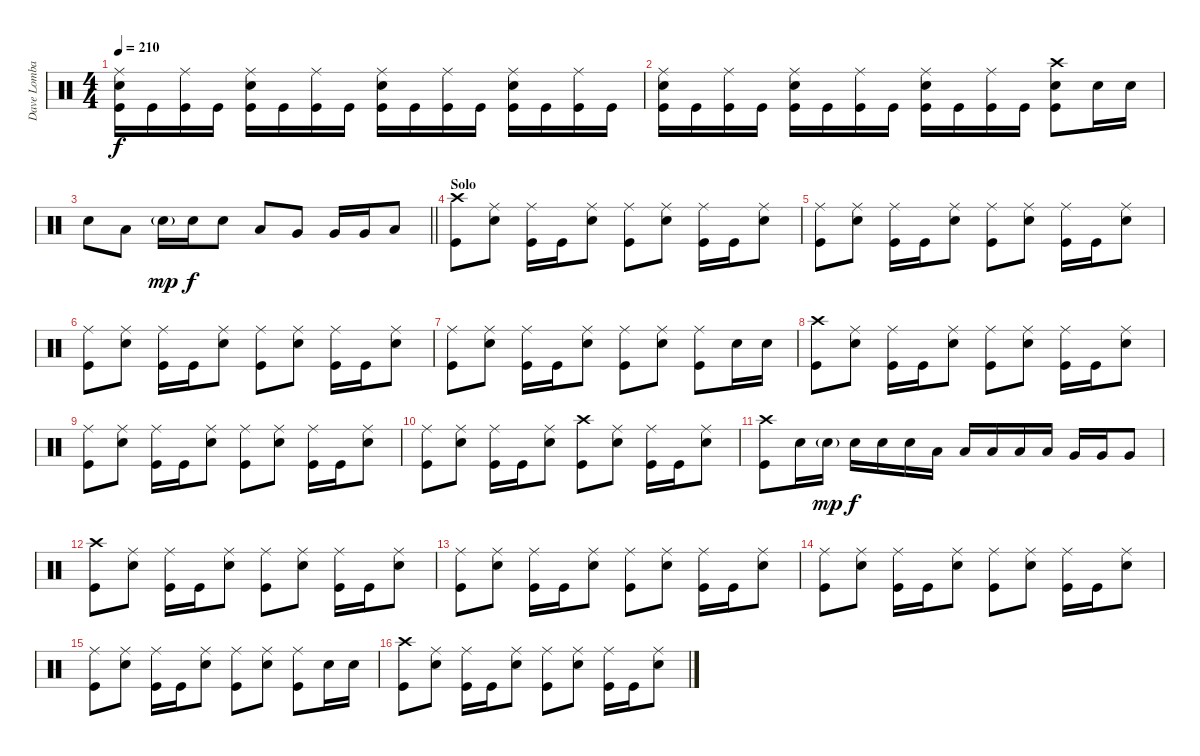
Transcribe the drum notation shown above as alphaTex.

\track ("Dave Lombardo" "Dave Lomba") {instrument percussion}
\staff {score}
\articulation defaults
\ts (4 4)
\tempo 210
\clef neutral
\ks c
("Ride (middle)" "Electric Snare (hit)" "Kick (hit)").16{dy f} "Kick (hit)".16 ("Ride (middle)" "Kick (hit)").16 "Kick (hit)".16 ("Ride (middle)" "Electric Snare (hit)" "Kick (hit)").16 "Kick (hit)".16 ("Ride (middle)" "Kick (hit)").16 "Kick (hit)".16 ("Ride (middle)" "Electric Snare (hit)" "Kick (hit)").16 "Kick (hit)".16 ("Ride (middle)" "Kick (hit)").16 "Kick (hit)".16 ("Ride (middle)" "Electric Snare (hit)" "Kick (hit)").16 "Kick (hit)".16 ("Ride (middle)" "Kick (hit)").16 "Kick (hit)".16 |
("Ride (middle)" "Electric Snare (hit)" "Kick (hit)").16 "Kick (hit)".16 ("Ride (middle)" "Kick (hit)").16 "Kick (hit)".16 ("Ride (middle)" "Electric Snare (hit)" "Kick (hit)").16 "Kick (hit)".16 ("Ride (middle)" "Kick (hit)").16 "Kick (hit)".16 ("Ride (middle)" "Electric Snare (hit)" "Kick (hit)").16 "Kick (hit)".16 ("Ride (middle)" "Kick (hit)").16 "Kick (hit)".16 ("Crash high (hit)" "Electric Snare (hit)" "Kick (hit)").8 "Electric Snare (hit)".16 "Electric Snare (hit)".16 |
\barLineRight lightlight "Electric Snare (hit)".8 "Low Tom (hit)".8 "Electric Snare (hit)"{g}.16{dy mp} "Electric Snare (hit)".16{dy f} "Electric Snare (hit)".8 "Low Tom (hit)".8 "Very Low Tom (hit)".8 "Very Low Tom (hit)".16 "Very Low Tom (hit)".16 "Low Floor Tom (hit)".8
|
\section ("" "Solo")
("Crash high (hit)" "Kick (hit)").8 ("Ride (middle)" "Electric Snare (hit)").8 ("Ride (middle)" "Kick (hit)").16 "Kick (hit)".16 ("Ride (middle)" "Electric Snare (hit)").8 ("Ride (middle)" "Kick (hit)").8 ("Ride (middle)" "Electric Snare (hit)").8 ("Ride (middle)" "Kick (hit)").16 "Kick (hit)".16 ("Ride (middle)" "Electric Snare (hit)").8 |
("Ride (middle)" "Kick (hit)").8 ("Ride (middle)" "Electric Snare (hit)").8 ("Ride (middle)" "Kick (hit)").16 "Kick (hit)".16 ("Ride (middle)" "Electric Snare (hit)").8 ("Ride (middle)" "Kick (hit)").8 ("Ride (middle)" "Electric Snare (hit)").8 ("Ride (middle)" "Kick (hit)").16 "Kick (hit)".16 ("Ride (middle)" "Electric Snare (hit)").8 |
("Ride (middle)" "Kick (hit)").8 ("Ride (middle)" "Electric Snare (hit)").8 ("Ride (middle)" "Kick (hit)").16 "Kick (hit)".16 ("Ride (middle)" "Electric Snare (hit)").8 ("Ride (middle)" "Kick (hit)").8 ("Ride (middle)" "Electric Snare (hit)").8 ("Ride (middle)" "Kick (hit)").16 "Kick (hit)".16 ("Ride (middle)" "Electric Snare (hit)").8 |
("Ride (middle)" "Kick (hit)").8 ("Ride (middle)" "Electric Snare (hit)").8 ("Ride (middle)" "Kick (hit)").16 "Kick (hit)".16 ("Ride (middle)" "Electric Snare (hit)").8 ("Ride (middle)" "Kick (hit)").8 ("Ride (middle)" "Electric Snare (hit)").8 ("Ride (middle)" "Kick (hit)").8 "Electric Snare (hit)".16 "Electric Snare (hit)".16 |
("Crash high (hit)" "Kick (hit)").8 ("Ride (middle)" "Electric Snare (hit)").8 ("Ride (middle)" "Kick (hit)").16 "Kick (hit)".16 ("Ride (middle)" "Electric Snare (hit)").8 ("Ride (middle)" "Kick (hit)").8 ("Ride (middle)" "Electric Snare (hit)").8 ("Ride (middle)" "Kick (hit)").16 "Kick (hit)".16 ("Ride (middle)" "Electric Snare (hit)").8 |
("Ride (middle)" "Kick (hit)").8 ("Ride (middle)" "Electric Snare (hit)").8 ("Ride (middle)" "Kick (hit)").16 "Kick (hit)".16 ("Ride (middle)" "Electric Snare (hit)").8 ("Ride (middle)" "Kick (hit)").8 ("Ride (middle)" "Electric Snare (hit)").8 ("Ride (middle)" "Kick (hit)").16 "Kick (hit)".16 ("Ride (middle)" "Electric Snare (hit)").8 |
("Ride (middle)" "Kick (hit)").8 ("Ride (middle)" "Electric Snare (hit)").8 ("Ride (middle)" "Kick (hit)").16 "Kick (hit)".16 ("Ride (middle)" "Electric Snare (hit)").8 ("Crash high (hit)" "Kick (hit)").8 ("Ride (middle)" "Electric Snare (hit)").8 ("Ride (middle)" "Kick (hit)").16 "Kick (hit)".16 ("Ride (middle)" "Electric Snare (hit)").8 |
("Crash high (hit)" "Kick (hit)").8 "Electric Snare (hit)".16 "Electric Snare (hit)"{g}.16{dy mp} "Electric Snare (hit)".16{dy f} "Electric Snare (hit)".16 "Electric Snare (hit)".16 "Low Tom (hit)".16 "Low Tom (hit)".16 "Low Tom (hit)".16 "Low Tom (hit)".16 "Low Tom (hit)".16 "Very Low Tom (hit)".16 "Very Low Tom (hit)".16 "Very Low Tom (hit)".8 |
("Crash high (hit)" "Kick (hit)").8 ("Ride (middle)" "Electric Snare (hit)").8 ("Ride (middle)" "Kick (hit)").16 "Kick (hit)".16 ("Ride (middle)" "Electric Snare (hit)").8 ("Ride (middle)" "Kick (hit)").8 ("Ride (middle)" "Electric Snare (hit)").8 ("Ride (middle)" "Kick (hit)").16 "Kick (hit)".16 ("Ride (middle)" "Electric Snare (hit)").8 |
("Ride (middle)" "Kick (hit)").8 ("Ride (middle)" "Electric Snare (hit)").8 ("Ride (middle)" "Kick (hit)").16 "Kick (hit)".16 ("Ride (middle)" "Electric Snare (hit)").8 ("Ride (middle)" "Kick (hit)").8 ("Ride (middle)" "Electric Snare (hit)").8 ("Ride (middle)" "Kick (hit)").16 "Kick (hit)".16 ("Ride (middle)" "Electric Snare (hit)").8 |
("Ride (middle)" "Kick (hit)").8 ("Ride (middle)" "Electric Snare (hit)").8 ("Ride (middle)" "Kick (hit)").16 "Kick (hit)".16 ("Ride (middle)" "Electric Snare (hit)").8 ("Ride (middle)" "Kick (hit)").8 ("Ride (middle)" "Electric Snare (hit)").8 ("Ride (middle)" "Kick (hit)").16 "Kick (hit)".16 ("Ride (middle)" "Electric Snare (hit)").8 |
("Ride (middle)" "Kick (hit)").8 ("Ride (middle)" "Electric Snare (hit)").8 ("Ride (middle)" "Kick (hit)").16 "Kick (hit)".16 ("Ride (middle)" "Electric Snare (hit)").8 ("Ride (middle)" "Kick (hit)").8 ("Ride (middle)" "Electric Snare (hit)").8 ("Ride (middle)" "Kick (hit)").8 "Electric Snare (hit)".16 "Electric Snare (hit)".16 |
("Crash high (hit)" "Kick (hit)").8 ("Ride (middle)" "Electric Snare (hit)").8 ("Ride (middle)" "Kick (hit)").16 "Kick (hit)".16 ("Ride (middle)" "Electric Snare (hit)").8 ("Ride (middle)" "Kick (hit)").8 ("Ride (middle)" "Electric Snare (hit)").8 ("Ride (middle)" "Kick (hit)").16 "Kick (hit)".16 ("Ride (middle)" "Electric Snare (hit)").8
